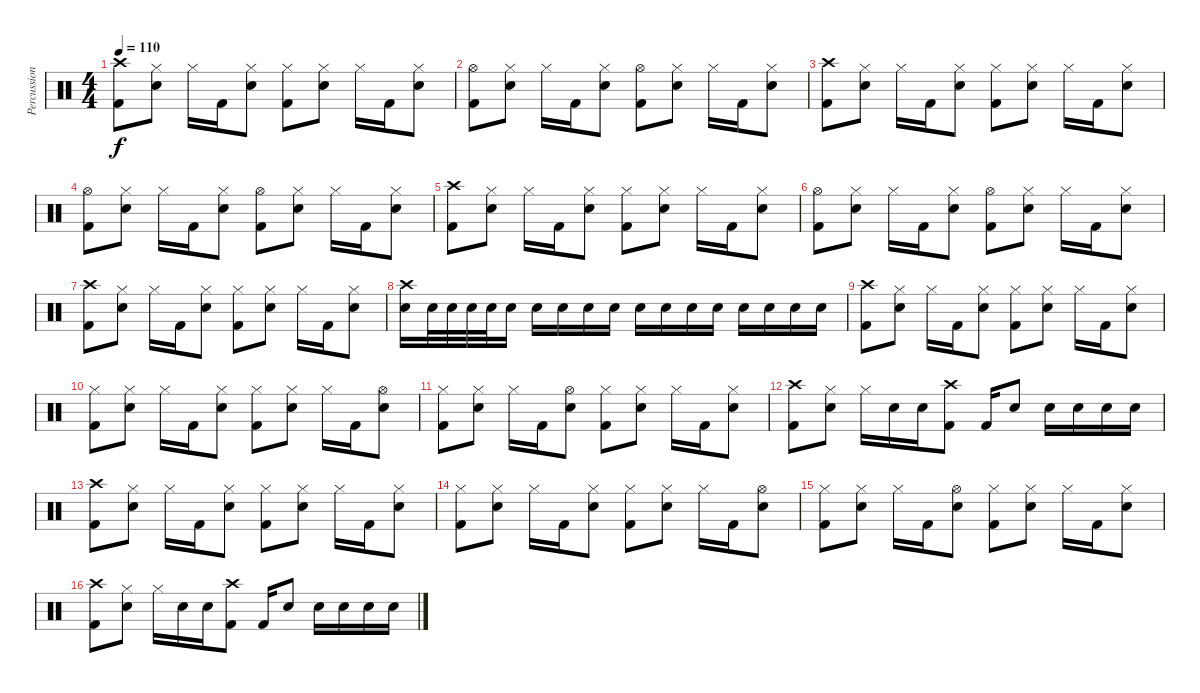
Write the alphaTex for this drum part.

\track ("Percussion" "Percussion") {instrument percussion}
\staff {score}
\articulation defaults
\ts (4 4)
\tempo 110
\clef neutral
\ks c
("Crash high (hit)" "Kick (hit) 2").8{dy f} ("Hi-Hat (closed)" "Electric Snare (hit)").8 "Hi-Hat (closed)".16 "Kick (hit) 2".16 ("Hi-Hat (closed)" "Electric Snare (hit)").8 ("Hi-Hat (closed)" "Kick (hit) 2").8 ("Hi-Hat (closed)" "Electric Snare (hit)").8 "Hi-Hat (closed)".16 "Kick (hit) 2".16 ("Hi-Hat (closed)" "Electric Snare (hit)").8 |
("Hi-Hat (open)" "Kick (hit) 2").8 ("Hi-Hat (closed)" "Electric Snare (hit)").8 "Hi-Hat (closed)".16 "Kick (hit) 2".16 ("Hi-Hat (closed)" "Electric Snare (hit)").8 ("Hi-Hat (open)" "Kick (hit) 2").8 ("Hi-Hat (closed)" "Electric Snare (hit)").8 "Hi-Hat (closed)".16 "Kick (hit) 2".16 ("Hi-Hat (closed)" "Electric Snare (hit)").8 |
("Crash high (hit)" "Kick (hit) 2").8 ("Hi-Hat (closed)" "Electric Snare (hit)").8 "Hi-Hat (closed)".16 "Kick (hit) 2".16 ("Hi-Hat (closed)" "Electric Snare (hit)").8 ("Hi-Hat (closed)" "Kick (hit) 2").8 ("Hi-Hat (closed)" "Electric Snare (hit)").8 "Hi-Hat (closed)".16 "Kick (hit) 2".16 ("Hi-Hat (closed)" "Electric Snare (hit)").8 |
("Hi-Hat (open)" "Kick (hit) 2").8 ("Hi-Hat (closed)" "Electric Snare (hit)").8 "Hi-Hat (closed)".16 "Kick (hit) 2".16 ("Hi-Hat (closed)" "Electric Snare (hit)").8 ("Hi-Hat (open)" "Kick (hit) 2").8 ("Hi-Hat (closed)" "Electric Snare (hit)").8 "Hi-Hat (closed)".16 "Kick (hit) 2".16 ("Hi-Hat (closed)" "Electric Snare (hit)").8 |
("Crash high (hit)" "Kick (hit) 2").8 ("Hi-Hat (closed)" "Electric Snare (hit)").8 "Hi-Hat (closed)".16 "Kick (hit) 2".16 ("Hi-Hat (closed)" "Electric Snare (hit)").8 ("Hi-Hat (closed)" "Kick (hit) 2").8 ("Hi-Hat (closed)" "Electric Snare (hit)").8 "Hi-Hat (closed)".16 "Kick (hit) 2".16 ("Hi-Hat (closed)" "Electric Snare (hit)").8 |
("Hi-Hat (open)" "Kick (hit) 2").8 ("Hi-Hat (closed)" "Electric Snare (hit)").8 "Hi-Hat (closed)".16 "Kick (hit) 2".16 ("Hi-Hat (closed)" "Electric Snare (hit)").8 ("Hi-Hat (open)" "Kick (hit) 2").8 ("Hi-Hat (closed)" "Electric Snare (hit)").8 "Hi-Hat (closed)".16 "Kick (hit) 2".16 ("Hi-Hat (closed)" "Electric Snare (hit)").8 |
("Crash high (hit)" "Kick (hit) 2").8 ("Hi-Hat (closed)" "Electric Snare (hit)").8 "Hi-Hat (closed)".16 "Kick (hit) 2".16 ("Hi-Hat (closed)" "Electric Snare (hit)").8 ("Hi-Hat (closed)" "Kick (hit) 2").8 ("Hi-Hat (closed)" "Electric Snare (hit)").8 "Hi-Hat (closed)".16 "Kick (hit) 2".16 ("Hi-Hat (closed)" "Electric Snare (hit)").8 |
("Crash high (hit)" "Electric Snare (hit)").16 "Electric Snare (hit)".32 "Electric Snare (hit)".32 "Electric Snare (hit)".32 "Electric Snare (hit)".32 "Electric Snare (hit)".16 "Electric Snare (hit)".16 "Electric Snare (hit)".16 "Electric Snare (hit)".16 "Electric Snare (hit)".16 "Electric Snare (hit)".16 "Electric Snare (hit)".16 "Electric Snare (hit)".16 "Electric Snare (hit)".16 "Electric Snare (hit)".16 "Electric Snare (hit)".16 "Electric Snare (hit)".16 "Electric Snare (hit)".16 |
("Crash high (hit)" "Kick (hit) 2").8 ("Hi-Hat (closed)" "Electric Snare (hit)").8 "Hi-Hat (closed)".16 "Kick (hit) 2".16 ("Hi-Hat (closed)" "Electric Snare (hit)").8 ("Hi-Hat (closed)" "Kick (hit) 2").8 ("Hi-Hat (closed)" "Electric Snare (hit)").8 "Hi-Hat (closed)".16 "Kick (hit) 2".16 ("Hi-Hat (closed)" "Electric Snare (hit)").8 |
("Hi-Hat (closed)" "Kick (hit) 2").8 ("Hi-Hat (closed)" "Electric Snare (hit)").8 "Hi-Hat (closed)".16 "Kick (hit) 2".16 ("Hi-Hat (closed)" "Electric Snare (hit)").8 ("Hi-Hat (closed)" "Kick (hit) 2").8 ("Hi-Hat (closed)" "Electric Snare (hit)").8 "Hi-Hat (closed)".16 "Kick (hit) 2".16 ("Hi-Hat (open)" "Electric Snare (hit)").8 |
("Hi-Hat (closed)" "Kick (hit) 2").8 ("Hi-Hat (closed)" "Electric Snare (hit)").8 "Hi-Hat (closed)".16 "Kick (hit) 2".16 ("Hi-Hat (open)" "Electric Snare (hit)").8 ("Hi-Hat (closed)" "Kick (hit) 2").8 ("Hi-Hat (closed)" "Electric Snare (hit)").8 "Hi-Hat (closed)".16 "Kick (hit) 2".16 ("Hi-Hat (closed)" "Electric Snare (hit)").8 |
("Crash high (hit)" "Kick (hit) 2").8 ("Hi-Hat (closed)" "Electric Snare (hit)").8 "Hi-Hat (closed)".16 "Electric Snare (hit)".16 "Electric Snare (hit)".16 ("Crash high (hit)" "Kick (hit) 2").8 "Kick (hit) 2".16 "Electric Snare (hit)".8 "Electric Snare (hit)".16 "Electric Snare (hit)".16 "Electric Snare (hit)".16 "Electric Snare (hit)".16 |
("Crash high (hit)" "Kick (hit) 2").8 ("Hi-Hat (closed)" "Electric Snare (hit)").8 "Hi-Hat (closed)".16 "Kick (hit) 2".16 ("Hi-Hat (closed)" "Electric Snare (hit)").8 ("Hi-Hat (closed)" "Kick (hit) 2").8 ("Hi-Hat (closed)" "Electric Snare (hit)").8 "Hi-Hat (closed)".16 "Kick (hit) 2".16 ("Hi-Hat (closed)" "Electric Snare (hit)").8 |
("Hi-Hat (closed)" "Kick (hit) 2").8 ("Hi-Hat (closed)" "Electric Snare (hit)").8 "Hi-Hat (closed)".16 "Kick (hit) 2".16 ("Hi-Hat (closed)" "Electric Snare (hit)").8 ("Hi-Hat (closed)" "Kick (hit) 2").8 ("Hi-Hat (closed)" "Electric Snare (hit)").8 "Hi-Hat (closed)".16 "Kick (hit) 2".16 ("Hi-Hat (open)" "Electric Snare (hit)").8 |
("Hi-Hat (closed)" "Kick (hit) 2").8 ("Hi-Hat (closed)" "Electric Snare (hit)").8 "Hi-Hat (closed)".16 "Kick (hit) 2".16 ("Hi-Hat (open)" "Electric Snare (hit)").8 ("Hi-Hat (closed)" "Kick (hit) 2").8 ("Hi-Hat (closed)" "Electric Snare (hit)").8 "Hi-Hat (closed)".16 "Kick (hit) 2".16 ("Hi-Hat (closed)" "Electric Snare (hit)").8 |
("Crash high (hit)" "Kick (hit) 2").8 ("Hi-Hat (closed)" "Electric Snare (hit)").8 "Hi-Hat (closed)".16 "Electric Snare (hit)".16 "Electric Snare (hit)".16 ("Crash high (hit)" "Kick (hit) 2").8 "Kick (hit) 2".16 "Electric Snare (hit)".8 "Electric Snare (hit)".16 "Electric Snare (hit)".16 "Electric Snare (hit)".16 "Electric Snare (hit)".16
